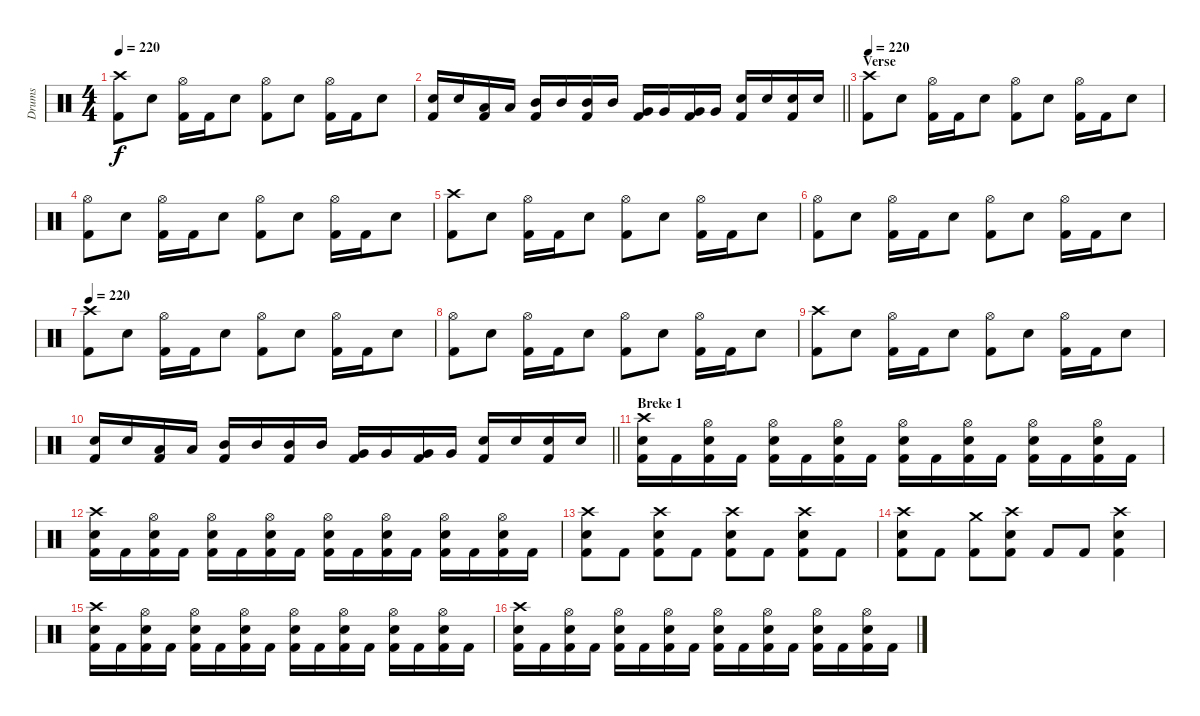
\track ("Drums" "Drums") {instrument percussion}
\staff {score}
\articulation defaults
\ts (4 4)
\tempo 220
\clef neutral
\ks c
("Crash high (hit)" "Kick (hit) 2").8{dy f} "Electric Snare (hit)".8 ("Hi-Hat (open)" "Kick (hit) 2").16 "Kick (hit) 2".16 "Electric Snare (hit)".8 ("Hi-Hat (open)" "Kick (hit) 2").8 "Electric Snare (hit)".8 ("Hi-Hat (open)" "Kick (hit) 2").16 "Kick (hit) 2".16 "Electric Snare (hit)".8 |
\barLineRight lightlight
("Electric Snare (hit)" "Kick (hit) 2").16 "Electric Snare (hit)".16 ("Low Tom (hit)" "Kick (hit) 2").16 "Low Tom (hit)".16 ("Mid Tom (hit)" "Kick (hit) 2").16 "Mid Tom (hit)".16 ("Mid Tom (hit)" "Kick (hit) 2").16 "Mid Tom (hit)".16 ("Very Low Tom (hit)" "Kick (hit) 2").16 "Very Low Tom (hit)".16 ("Very Low Tom (hit)" "Kick (hit) 2").16 "Very Low Tom (hit)".16 ("Electric Snare (hit)" "Kick (hit) 2").16 "Electric Snare (hit)".16 ("Electric Snare (hit)" "Kick (hit) 2").16 "Electric Snare (hit)".16 |
\section ("" "Verse")
\tempo 220
("Crash high (hit)" "Kick (hit) 2").8 "Electric Snare (hit)".8 ("Hi-Hat (open)" "Kick (hit) 2").16 "Kick (hit) 2".16 "Electric Snare (hit)".8 ("Hi-Hat (open)" "Kick (hit) 2").8 "Electric Snare (hit)".8 ("Hi-Hat (open)" "Kick (hit) 2").16 "Kick (hit) 2".16 "Electric Snare (hit)".8 |
("Hi-Hat (open)" "Kick (hit) 2").8 "Electric Snare (hit)".8 ("Hi-Hat (open)" "Kick (hit) 2").16 "Kick (hit) 2".16 "Electric Snare (hit)".8 ("Hi-Hat (open)" "Kick (hit) 2").8 "Electric Snare (hit)".8 ("Hi-Hat (open)" "Kick (hit) 2").16 "Kick (hit) 2".16 "Electric Snare (hit)".8 |
("Crash high (hit)" "Kick (hit) 2").8 "Electric Snare (hit)".8 ("Hi-Hat (open)" "Kick (hit) 2").16 "Kick (hit) 2".16 "Electric Snare (hit)".8 ("Hi-Hat (open)" "Kick (hit) 2").8 "Electric Snare (hit)".8 ("Hi-Hat (open)" "Kick (hit) 2").16 "Kick (hit) 2".16 "Electric Snare (hit)".8 |
("Hi-Hat (open)" "Kick (hit) 2").8 "Electric Snare (hit)".8 ("Hi-Hat (open)" "Kick (hit) 2").16 "Kick (hit) 2".16 "Electric Snare (hit)".8 ("Hi-Hat (open)" "Kick (hit) 2").8 "Electric Snare (hit)".8 ("Hi-Hat (open)" "Kick (hit) 2").16 "Kick (hit) 2".16 "Electric Snare (hit)".8 |
\tempo 220
("Crash high (hit)" "Kick (hit) 2").8 "Electric Snare (hit)".8 ("Hi-Hat (open)" "Kick (hit) 2").16 "Kick (hit) 2".16 "Electric Snare (hit)".8 ("Hi-Hat (open)" "Kick (hit) 2").8 "Electric Snare (hit)".8 ("Hi-Hat (open)" "Kick (hit) 2").16 "Kick (hit) 2".16 "Electric Snare (hit)".8 |
("Hi-Hat (open)" "Kick (hit) 2").8 "Electric Snare (hit)".8 ("Hi-Hat (open)" "Kick (hit) 2").16 "Kick (hit) 2".16 "Electric Snare (hit)".8 ("Hi-Hat (open)" "Kick (hit) 2").8 "Electric Snare (hit)".8 ("Hi-Hat (open)" "Kick (hit) 2").16 "Kick (hit) 2".16 "Electric Snare (hit)".8 |
("Crash high (hit)" "Kick (hit) 2").8 "Electric Snare (hit)".8 ("Hi-Hat (open)" "Kick (hit) 2").16 "Kick (hit) 2".16 "Electric Snare (hit)".8 ("Hi-Hat (open)" "Kick (hit) 2").8 "Electric Snare (hit)".8 ("Hi-Hat (open)" "Kick (hit) 2").16 "Kick (hit) 2".16 "Electric Snare (hit)".8 |
\barLineRight lightlight
("Electric Snare (hit)" "Kick (hit) 2").16 "Electric Snare (hit)".16 ("Low Tom (hit)" "Kick (hit) 2").16 "Low Tom (hit)".16 ("Mid Tom (hit)" "Kick (hit) 2").16 "Mid Tom (hit)".16 ("Mid Tom (hit)" "Kick (hit) 2").16 "Mid Tom (hit)".16 ("Very Low Tom (hit)" "Kick (hit) 2").16 "Very Low Tom (hit)".16 ("Very Low Tom (hit)" "Kick (hit) 2").16 "Very Low Tom (hit)".16 ("Electric Snare (hit)" "Kick (hit) 2").16 "Electric Snare (hit)".16 ("Electric Snare (hit)" "Kick (hit) 2").16 "Electric Snare (hit)".16 |
\section ("" "Breke 1")
("Kick (hit) 2" "Crash high (hit)" "Electric Snare (hit)").16 "Kick (hit) 2".16 ("Kick (hit) 2" "Hi-Hat (open)" "Electric Snare (hit)").16 "Kick (hit) 2".16 ("Kick (hit) 2" "Hi-Hat (open)" "Electric Snare (hit)").16 "Kick (hit) 2".16 ("Kick (hit) 2" "Hi-Hat (open)" "Electric Snare (hit)").16 "Kick (hit) 2".16 ("Kick (hit) 2" "Hi-Hat (open)" "Electric Snare (hit)").16 "Kick (hit) 2".16 ("Kick (hit) 2" "Hi-Hat (open)" "Electric Snare (hit)").16 "Kick (hit) 2".16 ("Kick (hit) 2" "Hi-Hat (open)" "Electric Snare (hit)").16 "Kick (hit) 2".16 ("Kick (hit) 2" "Hi-Hat (open)" "Electric Snare (hit)").16 "Kick (hit) 2".16 |
("Kick (hit) 2" "Crash high (hit)" "Electric Snare (hit)").16 "Kick (hit) 2".16 ("Kick (hit) 2" "Hi-Hat (open)" "Electric Snare (hit)").16 "Kick (hit) 2".16 ("Kick (hit) 2" "Hi-Hat (open)" "Electric Snare (hit)").16 "Kick (hit) 2".16 ("Kick (hit) 2" "Hi-Hat (open)" "Electric Snare (hit)").16 "Kick (hit) 2".16 ("Kick (hit) 2" "Hi-Hat (open)" "Electric Snare (hit)").16 "Kick (hit) 2".16 ("Kick (hit) 2" "Hi-Hat (open)" "Electric Snare (hit)").16 "Kick (hit) 2".16 ("Kick (hit) 2" "Hi-Hat (open)" "Electric Snare (hit)").16 "Kick (hit) 2".16 ("Kick (hit) 2" "Hi-Hat (open)" "Electric Snare (hit)").16 "Kick (hit) 2".16 |
("Electric Snare (hit)" "Crash high (hit)" "Kick (hit) 2").8 "Kick (hit) 2".8 ("Electric Snare (hit)" "Crash high (hit)" "Kick (hit) 2").8 "Kick (hit) 2".8 ("Electric Snare (hit)" "Crash high (hit)" "Kick (hit) 2").8 "Kick (hit) 2".8 ("Electric Snare (hit)" "Crash high (hit)" "Kick (hit) 2").8 "Kick (hit) 2".8 |
("Crash high (hit)" "Electric Snare (hit)" "Kick (hit) 2").8 "Kick (hit) 2".8 ("Kick (hit) 2" "Crash medium (hit)").8 ("Electric Snare (hit)" "Crash high (hit)" "Kick (hit) 2").8 "Kick (hit) 2".8 "Kick (hit) 2".8 ("Electric Snare (hit)" "Crash high (hit)" "Kick (hit) 2").4 |
("Kick (hit) 2" "Crash high (hit)" "Electric Snare (hit)").16 "Kick (hit) 2".16 ("Kick (hit) 2" "Hi-Hat (open)" "Electric Snare (hit)").16 "Kick (hit) 2".16 ("Kick (hit) 2" "Hi-Hat (open)" "Electric Snare (hit)").16 "Kick (hit) 2".16 ("Kick (hit) 2" "Hi-Hat (open)" "Electric Snare (hit)").16 "Kick (hit) 2".16 ("Kick (hit) 2" "Hi-Hat (open)" "Electric Snare (hit)").16 "Kick (hit) 2".16 ("Kick (hit) 2" "Hi-Hat (open)" "Electric Snare (hit)").16 "Kick (hit) 2".16 ("Kick (hit) 2" "Hi-Hat (open)" "Electric Snare (hit)").16 "Kick (hit) 2".16 ("Kick (hit) 2" "Hi-Hat (open)" "Electric Snare (hit)").16 "Kick (hit) 2".16 |
("Kick (hit) 2" "Crash high (hit)" "Electric Snare (hit)").16 "Kick (hit) 2".16 ("Kick (hit) 2" "Hi-Hat (open)" "Electric Snare (hit)").16 "Kick (hit) 2".16 ("Kick (hit) 2" "Hi-Hat (open)" "Electric Snare (hit)").16 "Kick (hit) 2".16 ("Kick (hit) 2" "Hi-Hat (open)" "Electric Snare (hit)").16 "Kick (hit) 2".16 ("Kick (hit) 2" "Hi-Hat (open)" "Electric Snare (hit)").16 "Kick (hit) 2".16 ("Kick (hit) 2" "Hi-Hat (open)" "Electric Snare (hit)").16 "Kick (hit) 2".16 ("Kick (hit) 2" "Hi-Hat (open)" "Electric Snare (hit)").16 "Kick (hit) 2".16 ("Kick (hit) 2" "Hi-Hat (open)" "Electric Snare (hit)").16 "Kick (hit) 2".16
